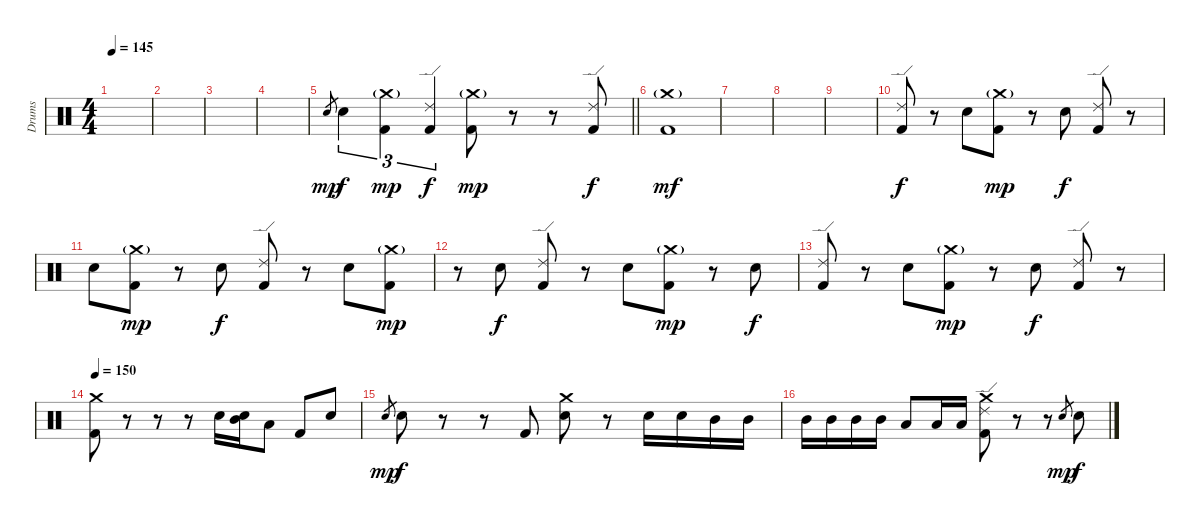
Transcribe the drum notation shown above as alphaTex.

\track ("Drums" "Drums") {instrument percussion}
\staff {score}
\articulation defaults
\ts (4 4)
\tempo 145
\clef neutral
\ks c
|
|
|
|
\barLineRight lightlight "Electric Snare (hit)".8{gr dy mp} "Electric Snare (hit)".4{tu (3 2) dy f}
("Crash medium (hit)"{g} "Kick (hit) 2").4{tu (3 2) dy mp} ("Ride (edge) 2" "Kick (hit) 2").4{tu (3 2) dy f} ("Crash medium (hit)"{g} "Kick (hit) 2").8{dy mp} r.8 r.8 ("Ride (edge) 2" "Kick (hit) 2").8{dy f} |
("Crash medium (hit)"{g} "Kick (hit) 2").1{dy mf} |
|
|
|
("Ride (edge) 2" "Kick (hit) 2").8{dy f} r.8 "Electric Snare (hit)".8 ("Crash medium (hit)"{g} "Kick (hit) 2").8{dy mp} r.8 "Electric Snare (hit)".8{dy f} ("Ride (edge) 2" "Kick (hit) 2").8 r.8 |
"Electric Snare (hit)".8 ("Crash medium (hit)"{g} "Kick (hit) 2").8{dy mp} r.8 "Electric Snare (hit)".8{dy f} ("Ride (edge) 2" "Kick (hit) 2").8 r.8 "Electric Snare (hit)".8 ("Crash medium (hit)"{g} "Kick (hit) 2").8{dy mp} |
r.8 "Electric Snare (hit)".8{dy f} ("Ride (edge) 2" "Kick (hit) 2").8 r.8 "Electric Snare (hit)".8 ("Crash medium (hit)"{g} "Kick (hit) 2").8{dy mp} r.8 "Electric Snare (hit)".8{dy f} |
("Ride (edge) 2" "Kick (hit) 2").8 r.8 "Electric Snare (hit)".8 ("Crash medium (hit)"{g} "Kick (hit) 2").8{dy mp} r.8 "Electric Snare (hit)".8{dy f} ("Ride (edge) 2" "Kick (hit) 2").8 r.8 |
\tempo 150
("Crash medium (hit)" "Kick (hit) 2").8 r.8 r.8 r.8 "Electric Snare (hit)".16 ("Mid Tom (hit)" "Electric Snare (hit)").16 "Low Tom (hit)".8 "Kick (hit) 2".8 "Electric Snare (hit)".8 |
"Electric Snare (hit)".8{gr dy mp} "Electric Snare (hit)".8{dy f} r.8 r.8 "Kick (hit) 2".8 ("Crash medium (hit)" "Electric Snare (hit)").8 r.8 "Electric Snare (hit)".16 "Electric Snare (hit)".16 "Mid Tom (hit)".16 "Mid Tom (hit)".16 |
"Mid Tom (hit)".16 "Mid Tom (hit)".16 "Mid Tom (hit)".16 "Mid Tom (hit)".16 "Low Tom (hit)".8 "Low Tom (hit)".16 "Low Tom (hit)".16 ("Crash medium (hit)" "Ride (edge) 2" "Kick (hit) 2").8 r.8 r.8 "Electric Snare (hit)".8{gr dy mp} "Electric Snare (hit)".8{dy f}
